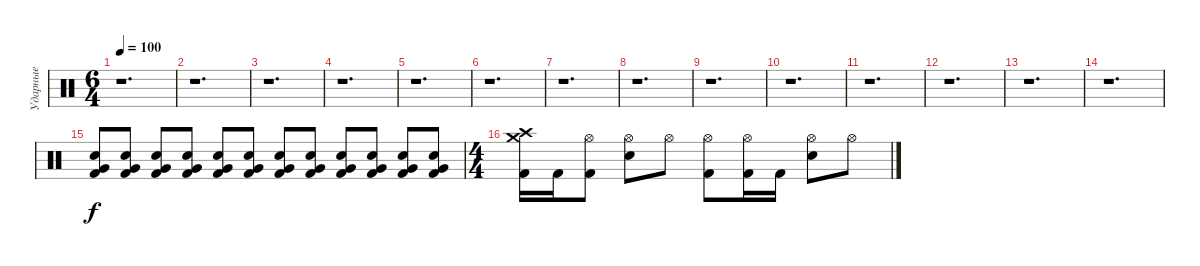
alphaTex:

\track ("Ударные" "Ударные") {instrument percussion}
\staff {score}
\articulation defaults
\ts (6 4)
\tempo 100
\clef neutral
\ks c
r.1{d dy f} |
r.1{d} |
r.1{d} |
r.1{d} |
r.1{d} |
r.1{d} |
r.1{d} |
r.1{d} |
r.1{d} |
r.1{d} |
r.1{d} |
r.1{d} |
r.1{d} |
r.1{d} |
("Electric Snare (hit)" "Very Low Tom (hit)" "Kick (hit) 2").8 ("Electric Snare (hit)" "Very Low Tom (hit)" "Kick (hit) 2").8 ("Electric Snare (hit)" "Very Low Tom (hit)" "Kick (hit) 2").8 ("Electric Snare (hit)" "Very Low Tom (hit)" "Kick (hit) 2").8 ("Electric Snare (hit)" "Very Low Tom (hit)" "Kick (hit) 2").8 ("Electric Snare (hit)" "Very Low Tom (hit)" "Kick (hit) 2").8 ("Electric Snare (hit)" "Very Low Tom (hit)" "Kick (hit) 2").8 ("Electric Snare (hit)" "Very Low Tom (hit)" "Kick (hit) 2").8 ("Electric Snare (hit)" "Very Low Tom (hit)" "Kick (hit) 2").8 ("Electric Snare (hit)" "Very Low Tom (hit)" "Kick (hit) 2").8 ("Electric Snare (hit)" "Very Low Tom (hit)" "Kick (hit) 2").8 ("Electric Snare (hit)" "Very Low Tom (hit)" "Kick (hit) 2").8 |
\ts (4 4)
("Crash medium (hit)" "Crash high (hit)" "Kick (hit) 2").16 "Kick (hit) 2".16 ("Hi-Hat (open)" "Kick (hit) 2").8 ("Hi-Hat (open)" "Electric Snare (hit)").8 "Hi-Hat (open)".8 ("Hi-Hat (open)" "Kick (hit) 2").8 ("Hi-Hat (open)" "Kick (hit) 2").16 "Kick (hit) 2".16 ("Hi-Hat (open)" "Electric Snare (hit)").8 "Hi-Hat (open)".8
